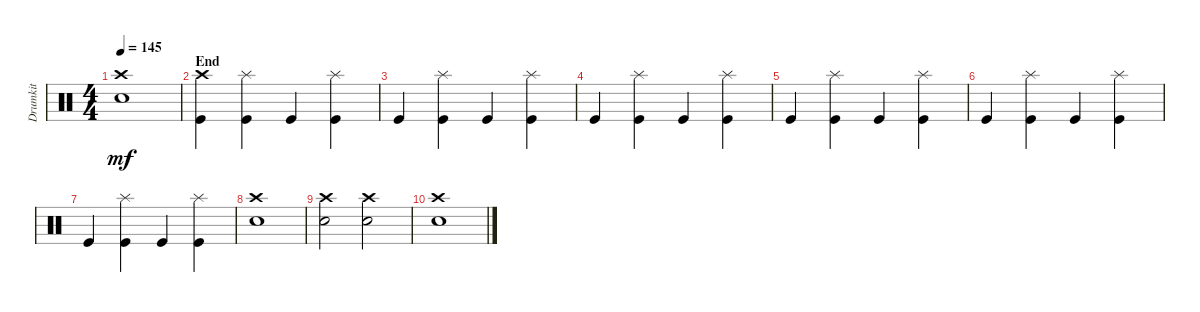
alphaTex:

\track ("Drumkit" "Drumkit") {instrument percussion}
\staff {score}
\articulation defaults
\ts (4 4)
\tempo 145
\clef neutral
\ks c
("Crash high (hit)" "Electric Snare (hit)").1{dy mf} |
\section ("" "End")
("Kick (hit)" "Crash high (hit)").4 ("Kick (hit)" "Splash (hit)").4 "Kick (hit)".4 ("Kick (hit)" "Splash (hit)").4 |
"Kick (hit)".4 ("Kick (hit)" "Splash (hit)").4 "Kick (hit)".4 ("Kick (hit)" "Splash (hit)").4 |
"Kick (hit)".4 ("Kick (hit)" "Splash (hit)").4 "Kick (hit)".4 ("Kick (hit)" "Splash (hit)").4 |
"Kick (hit)".4 ("Kick (hit)" "Splash (hit)").4 "Kick (hit)".4 ("Kick (hit)" "Splash (hit)").4 |
"Kick (hit)".4 ("Kick (hit)" "Splash (hit)").4 "Kick (hit)".4 ("Kick (hit)" "Splash (hit)").4 |
"Kick (hit)".4 ("Kick (hit)" "Splash (hit)").4 "Kick (hit)".4 ("Kick (hit)" "Splash (hit)").4 |
("Crash high (hit)" "Electric Snare (hit)").1 |
("Crash high (hit)" "Electric Snare (hit)").2 ("Crash high (hit)" "Electric Snare (hit)").2 |
("Crash high (hit)" "Electric Snare (hit)").1
